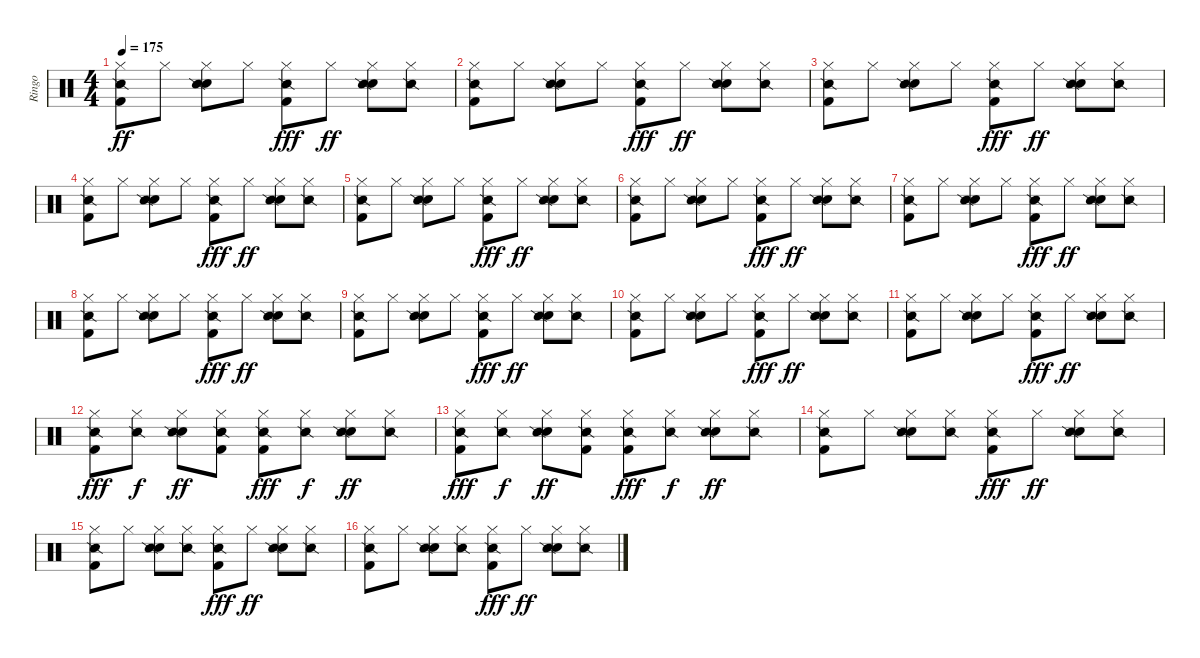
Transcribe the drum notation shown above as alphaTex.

\track ("Ringo" "Ringo") {instrument percussion}
\staff {score}
\articulation defaults
\ts (4 4)
\tempo 175
\clef neutral
\ks c
("Hi-Hat (closed)" "Snare (side stick) 2" "Kick (hit) 2").8{dy ff} "Hi-Hat (closed)".8 ("Hi-Hat (closed)" "Electric Snare (hit)" "Snare (side stick) 2").8 "Hi-Hat (closed)".8 ("Hi-Hat (closed)" "Snare (side stick) 2" "Kick (hit) 2").8{dy fff} "Hi-Hat (closed)".8{dy ff} ("Hi-Hat (closed)" "Electric Snare (hit)" "Snare (side stick) 2").8 ("Hi-Hat (closed)" "Snare (side stick) 2").8 |
("Hi-Hat (closed)" "Snare (side stick) 2" "Kick (hit) 2").8 "Hi-Hat (closed)".8 ("Hi-Hat (closed)" "Electric Snare (hit)" "Snare (side stick) 2").8 "Hi-Hat (closed)".8 ("Hi-Hat (closed)" "Snare (side stick) 2" "Kick (hit) 2").8{dy fff} "Hi-Hat (closed)".8{dy ff} ("Hi-Hat (closed)" "Electric Snare (hit)" "Snare (side stick) 2").8 ("Hi-Hat (closed)" "Snare (side stick) 2").8 |
("Hi-Hat (closed)" "Snare (side stick) 2" "Kick (hit) 2").8 "Hi-Hat (closed)".8 ("Hi-Hat (closed)" "Electric Snare (hit)" "Snare (side stick) 2").8 "Hi-Hat (closed)".8 ("Hi-Hat (closed)" "Snare (side stick) 2" "Kick (hit) 2").8{dy fff} "Hi-Hat (closed)".8{dy ff} ("Hi-Hat (closed)" "Electric Snare (hit)" "Snare (side stick) 2").8 ("Hi-Hat (closed)" "Snare (side stick) 2").8 |
("Hi-Hat (closed)" "Snare (side stick) 2" "Kick (hit) 2").8 "Hi-Hat (closed)".8 ("Hi-Hat (closed)" "Electric Snare (hit)" "Snare (side stick) 2").8 "Hi-Hat (closed)".8 ("Hi-Hat (closed)" "Snare (side stick) 2" "Kick (hit) 2").8{dy fff} "Hi-Hat (closed)".8{dy ff} ("Hi-Hat (closed)" "Electric Snare (hit)" "Snare (side stick) 2").8 ("Hi-Hat (closed)" "Snare (side stick) 2").8 |
("Hi-Hat (closed)" "Snare (side stick) 2" "Kick (hit) 2").8 "Hi-Hat (closed)".8 ("Hi-Hat (closed)" "Electric Snare (hit)" "Snare (side stick) 2").8 "Hi-Hat (closed)".8 ("Hi-Hat (closed)" "Snare (side stick) 2" "Kick (hit) 2").8{dy fff} "Hi-Hat (closed)".8{dy ff} ("Hi-Hat (closed)" "Electric Snare (hit)" "Snare (side stick) 2").8 ("Hi-Hat (closed)" "Snare (side stick) 2").8 |
("Hi-Hat (closed)" "Snare (side stick) 2" "Kick (hit) 2").8 "Hi-Hat (closed)".8 ("Hi-Hat (closed)" "Electric Snare (hit)" "Snare (side stick) 2").8 "Hi-Hat (closed)".8 ("Hi-Hat (closed)" "Snare (side stick) 2" "Kick (hit) 2").8{dy fff} "Hi-Hat (closed)".8{dy ff} ("Hi-Hat (closed)" "Electric Snare (hit)" "Snare (side stick) 2").8 ("Hi-Hat (closed)" "Snare (side stick) 2").8 |
("Hi-Hat (closed)" "Snare (side stick) 2" "Kick (hit) 2").8 "Hi-Hat (closed)".8 ("Hi-Hat (closed)" "Electric Snare (hit)" "Snare (side stick) 2").8 "Hi-Hat (closed)".8 ("Hi-Hat (closed)" "Snare (side stick) 2" "Kick (hit) 2").8{dy fff} "Hi-Hat (closed)".8{dy ff} ("Hi-Hat (closed)" "Electric Snare (hit)" "Snare (side stick) 2").8 ("Hi-Hat (closed)" "Snare (side stick) 2").8 |
("Hi-Hat (closed)" "Snare (side stick) 2" "Kick (hit) 2").8 "Hi-Hat (closed)".8 ("Hi-Hat (closed)" "Electric Snare (hit)" "Snare (side stick) 2").8 "Hi-Hat (closed)".8 ("Hi-Hat (closed)" "Snare (side stick) 2" "Kick (hit) 2").8{dy fff} "Hi-Hat (closed)".8{dy ff} ("Hi-Hat (closed)" "Electric Snare (hit)" "Snare (side stick) 2").8 ("Hi-Hat (closed)" "Snare (side stick) 2").8 |
("Hi-Hat (closed)" "Snare (side stick) 2" "Kick (hit) 2").8 "Hi-Hat (closed)".8 ("Hi-Hat (closed)" "Electric Snare (hit)" "Snare (side stick) 2").8 "Hi-Hat (closed)".8 ("Hi-Hat (closed)" "Snare (side stick) 2" "Kick (hit) 2").8{dy fff} "Hi-Hat (closed)".8{dy ff} ("Hi-Hat (closed)" "Electric Snare (hit)" "Snare (side stick) 2").8 ("Hi-Hat (closed)" "Snare (side stick) 2").8 |
("Hi-Hat (closed)" "Snare (side stick) 2" "Kick (hit) 2").8 "Hi-Hat (closed)".8 ("Hi-Hat (closed)" "Electric Snare (hit)" "Snare (side stick) 2").8 "Hi-Hat (closed)".8 ("Hi-Hat (closed)" "Snare (side stick) 2" "Kick (hit) 2").8{dy fff} "Hi-Hat (closed)".8{dy ff} ("Hi-Hat (closed)" "Electric Snare (hit)" "Snare (side stick) 2").8 ("Hi-Hat (closed)" "Snare (side stick) 2").8 |
("Hi-Hat (closed)" "Snare (side stick) 2" "Kick (hit) 2").8 "Hi-Hat (closed)".8 ("Hi-Hat (closed)" "Electric Snare (hit)" "Snare (side stick) 2").8 "Hi-Hat (closed)".8 ("Hi-Hat (closed)" "Snare (side stick) 2" "Kick (hit) 2").8{dy fff} "Hi-Hat (closed)".8{dy ff} ("Hi-Hat (closed)" "Electric Snare (hit)" "Snare (side stick) 2").8 ("Hi-Hat (closed)" "Snare (side stick) 2").8 |
("Hi-Hat (closed)" "Snare (side stick) 2" "Kick (hit) 2").8{dy fff} ("Hi-Hat (closed)" "Snare (side stick) 2").8{dy f} ("Hi-Hat (closed)" "Electric Snare (hit)" "Snare (side stick) 2").8{dy ff} ("Hi-Hat (closed)" "Snare (side stick) 2" "Kick (hit) 2").8 ("Hi-Hat (closed)" "Snare (side stick) 2" "Kick (hit) 2").8{dy fff} ("Hi-Hat (closed)" "Snare (side stick) 2").8{dy f} ("Hi-Hat (closed)" "Electric Snare (hit)" "Snare (side stick) 2").8{dy ff} ("Hi-Hat (closed)" "Snare (side stick) 2").8 |
("Hi-Hat (closed)" "Snare (side stick) 2" "Kick (hit) 2").8{dy fff} ("Hi-Hat (closed)" "Snare (side stick) 2").8{dy f} ("Hi-Hat (closed)" "Electric Snare (hit)" "Snare (side stick) 2").8{dy ff} ("Hi-Hat (closed)" "Snare (side stick) 2" "Kick (hit) 2").8 ("Hi-Hat (closed)" "Snare (side stick) 2" "Kick (hit) 2").8{dy fff} ("Hi-Hat (closed)" "Snare (side stick) 2").8{dy f} ("Hi-Hat (closed)" "Electric Snare (hit)" "Snare (side stick) 2").8{dy ff} ("Hi-Hat (closed)" "Snare (side stick) 2").8 |
("Hi-Hat (closed)" "Snare (side stick) 2" "Kick (hit) 2").8 "Hi-Hat (closed)".8 ("Hi-Hat (closed)" "Electric Snare (hit)" "Snare (side stick) 2").8 ("Hi-Hat (closed)" "Snare (side stick) 2").8 ("Hi-Hat (closed)" "Snare (side stick) 2" "Kick (hit) 2").8{dy fff} "Hi-Hat (closed)".8{dy ff} ("Hi-Hat (closed)" "Electric Snare (hit)" "Snare (side stick) 2").8 ("Hi-Hat (closed)" "Snare (side stick) 2").8 |
("Hi-Hat (closed)" "Snare (side stick) 2" "Kick (hit) 2").8 "Hi-Hat (closed)".8 ("Hi-Hat (closed)" "Electric Snare (hit)" "Snare (side stick) 2").8 ("Hi-Hat (closed)" "Snare (side stick) 2").8 ("Hi-Hat (closed)" "Snare (side stick) 2" "Kick (hit) 2").8{dy fff} "Hi-Hat (closed)".8{dy ff} ("Hi-Hat (closed)" "Electric Snare (hit)" "Snare (side stick) 2").8 ("Hi-Hat (closed)" "Snare (side stick) 2").8 |
("Hi-Hat (closed)" "Snare (side stick) 2" "Kick (hit) 2").8 "Hi-Hat (closed)".8 ("Hi-Hat (closed)" "Electric Snare (hit)" "Snare (side stick) 2").8 ("Hi-Hat (closed)" "Snare (side stick) 2").8 ("Hi-Hat (closed)" "Snare (side stick) 2" "Kick (hit) 2").8{dy fff} "Hi-Hat (closed)".8{dy ff} ("Hi-Hat (closed)" "Electric Snare (hit)" "Snare (side stick) 2").8 ("Hi-Hat (closed)" "Snare (side stick) 2").8
